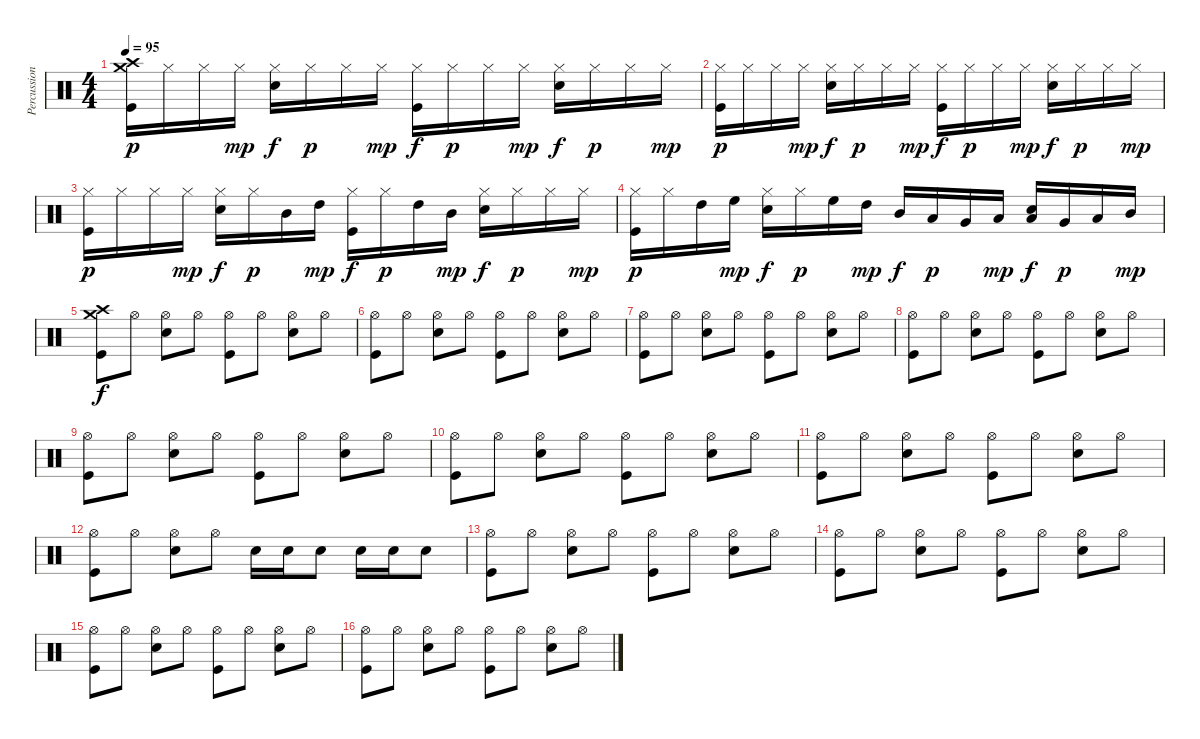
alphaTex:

\track ("Percussion" "Percussion") {instrument percussion}
\staff {score}
\articulation defaults
\ts (4 4)
\tempo 95
\clef neutral
\ks c
("Crash medium (hit)" "Crash high (hit)" "Kick (hit)").16{dy p} "Hi-Hat (closed)".16 "Hi-Hat (closed)".16 "Hi-Hat (closed)".16{dy mp} ("Hi-Hat (closed)" "Snare (hit) 2").16{dy f} "Hi-Hat (closed)".16{dy p} "Hi-Hat (closed)".16 "Hi-Hat (closed)".16{dy mp} ("Hi-Hat (closed)" "Kick (hit)").16{dy f} "Hi-Hat (closed)".16{dy p} "Hi-Hat (closed)".16 "Hi-Hat (closed)".16{dy mp} ("Hi-Hat (closed)" "Snare (hit) 2").16{dy f} "Hi-Hat (closed)".16{dy p} "Hi-Hat (closed)".16 "Hi-Hat (closed)".16{dy mp} |
("Hi-Hat (closed)" "Kick (hit)").16{dy p} "Hi-Hat (closed)".16 "Hi-Hat (closed)".16 "Hi-Hat (closed)".16{dy mp} ("Hi-Hat (closed)" "Snare (hit) 2").16{dy f} "Hi-Hat (closed)".16{dy p} "Hi-Hat (closed)".16 "Hi-Hat (closed)".16{dy mp} ("Hi-Hat (closed)" "Kick (hit)").16{dy f} "Hi-Hat (closed)".16{dy p} "Hi-Hat (closed)".16 "Hi-Hat (closed)".16{dy mp} ("Hi-Hat (closed)" "Snare (hit) 2").16{dy f} "Hi-Hat (closed)".16{dy p} "Hi-Hat (closed)".16 "Hi-Hat (closed)".16{dy mp} |
("Hi-Hat (closed)" "Kick (hit)").16{dy p} "Hi-Hat (closed)".16 "Hi-Hat (closed)".16 "Hi-Hat (closed)".16{dy mp} ("Hi-Hat (closed)" "Snare (hit) 2").16{dy f} "Hi-Hat (closed)".16{dy p} "Mid Tom (hit)".16 "High Tom (hit)".16{dy mp} ("Hi-Hat (closed)" "Kick (hit)").16{dy f} "Hi-Hat (closed)".16{dy p} "High Tom (hit)".16 "Mid Tom (hit)".16{dy mp} ("Hi-Hat (closed)" "Snare (hit) 2").16{dy f} "Hi-Hat (closed)".16{dy p} "Hi-Hat (closed)".16 "Hi-Hat (closed)".16{dy mp} |
("Hi-Hat (closed)" "Kick (hit)").16{dy p} "Hi-Hat (closed)".16 "High Tom (hit)".16 "High Floor Tom (hit)".16{dy mp} ("Hi-Hat (closed)" "Snare (hit) 2").16{dy f} "Hi-Hat (closed)".16{dy p} "High Floor Tom (hit)".16 "High Tom (hit)".16{dy mp} "Mid Tom (hit)".16{dy f} "Low Tom (hit)".16{dy p} "Very Low Tom (hit)".16 "Low Floor Tom (hit)".16{dy mp} ("Low Floor Tom (hit)" "Snare (hit) 2").16{dy f} "Very Low Tom (hit)".16{dy p} "Low Tom (hit)".16 "Mid Tom (hit)".16{dy mp} |
("Crash medium (hit)" "Crash high (hit)" "Kick (hit)").8{dy f} "Hi-Hat (open)".8 ("Hi-Hat (open)" "Electric Snare (hit)").8 "Hi-Hat (open)".8 ("Hi-Hat (open)" "Kick (hit)").8 "Hi-Hat (open)".8 ("Hi-Hat (open)" "Electric Snare (hit)").8 "Hi-Hat (open)".8 |
("Hi-Hat (open)" "Kick (hit)").8 "Hi-Hat (open)".8 ("Hi-Hat (open)" "Electric Snare (hit)").8 "Hi-Hat (open)".8 ("Hi-Hat (open)" "Kick (hit)").8 "Hi-Hat (open)".8 ("Hi-Hat (open)" "Electric Snare (hit)").8 "Hi-Hat (open)".8 |
("Hi-Hat (open)" "Kick (hit)").8 "Hi-Hat (open)".8 ("Hi-Hat (open)" "Electric Snare (hit)").8 "Hi-Hat (open)".8 ("Hi-Hat (open)" "Kick (hit)").8 "Hi-Hat (open)".8 ("Hi-Hat (open)" "Electric Snare (hit)").8 "Hi-Hat (open)".8 |
("Hi-Hat (open)" "Kick (hit)").8 "Hi-Hat (open)".8 ("Hi-Hat (open)" "Electric Snare (hit)").8 "Hi-Hat (open)".8 ("Hi-Hat (open)" "Kick (hit)").8 "Hi-Hat (open)".8 ("Hi-Hat (open)" "Electric Snare (hit)").8 "Hi-Hat (open)".8 |
("Hi-Hat (open)" "Kick (hit)").8 "Hi-Hat (open)".8 ("Hi-Hat (open)" "Electric Snare (hit)").8 "Hi-Hat (open)".8 ("Hi-Hat (open)" "Kick (hit)").8 "Hi-Hat (open)".8 ("Hi-Hat (open)" "Electric Snare (hit)").8 "Hi-Hat (open)".8 |
("Hi-Hat (open)" "Kick (hit)").8 "Hi-Hat (open)".8 ("Hi-Hat (open)" "Electric Snare (hit)").8 "Hi-Hat (open)".8 ("Hi-Hat (open)" "Kick (hit)").8 "Hi-Hat (open)".8 ("Hi-Hat (open)" "Electric Snare (hit)").8 "Hi-Hat (open)".8 |
("Hi-Hat (open)" "Kick (hit)").8 "Hi-Hat (open)".8 ("Hi-Hat (open)" "Electric Snare (hit)").8 "Hi-Hat (open)".8 ("Hi-Hat (open)" "Kick (hit)").8 "Hi-Hat (open)".8 ("Hi-Hat (open)" "Electric Snare (hit)").8 "Hi-Hat (open)".8 |
("Hi-Hat (open)" "Kick (hit)").8 "Hi-Hat (open)".8 ("Hi-Hat (open)" "Electric Snare (hit)").8 "Hi-Hat (open)".8 "Electric Snare (hit)".16 "Electric Snare (hit)".16 "Snare (hit) 2".8 "Electric Snare (hit)".16 "Electric Snare (hit)".16 "Snare (hit) 2".8 |
("Hi-Hat (open)" "Kick (hit)").8 "Hi-Hat (open)".8 ("Hi-Hat (open)" "Electric Snare (hit)").8 "Hi-Hat (open)".8 ("Hi-Hat (open)" "Kick (hit)").8 "Hi-Hat (open)".8 ("Hi-Hat (open)" "Electric Snare (hit)").8 "Hi-Hat (open)".8 |
("Hi-Hat (open)" "Kick (hit)").8 "Hi-Hat (open)".8 ("Hi-Hat (open)" "Electric Snare (hit)").8 "Hi-Hat (open)".8 ("Hi-Hat (open)" "Kick (hit)").8 "Hi-Hat (open)".8 ("Hi-Hat (open)" "Electric Snare (hit)").8 "Hi-Hat (open)".8 |
("Hi-Hat (open)" "Kick (hit)").8 "Hi-Hat (open)".8 ("Hi-Hat (open)" "Electric Snare (hit)").8 "Hi-Hat (open)".8 ("Hi-Hat (open)" "Kick (hit)").8 "Hi-Hat (open)".8 ("Hi-Hat (open)" "Electric Snare (hit)").8 "Hi-Hat (open)".8 |
("Hi-Hat (open)" "Kick (hit)").8 "Hi-Hat (open)".8 ("Hi-Hat (open)" "Electric Snare (hit)").8 "Hi-Hat (open)".8 ("Hi-Hat (open)" "Kick (hit)").8 "Hi-Hat (open)".8 ("Hi-Hat (open)" "Electric Snare (hit)").8 "Hi-Hat (open)".8
